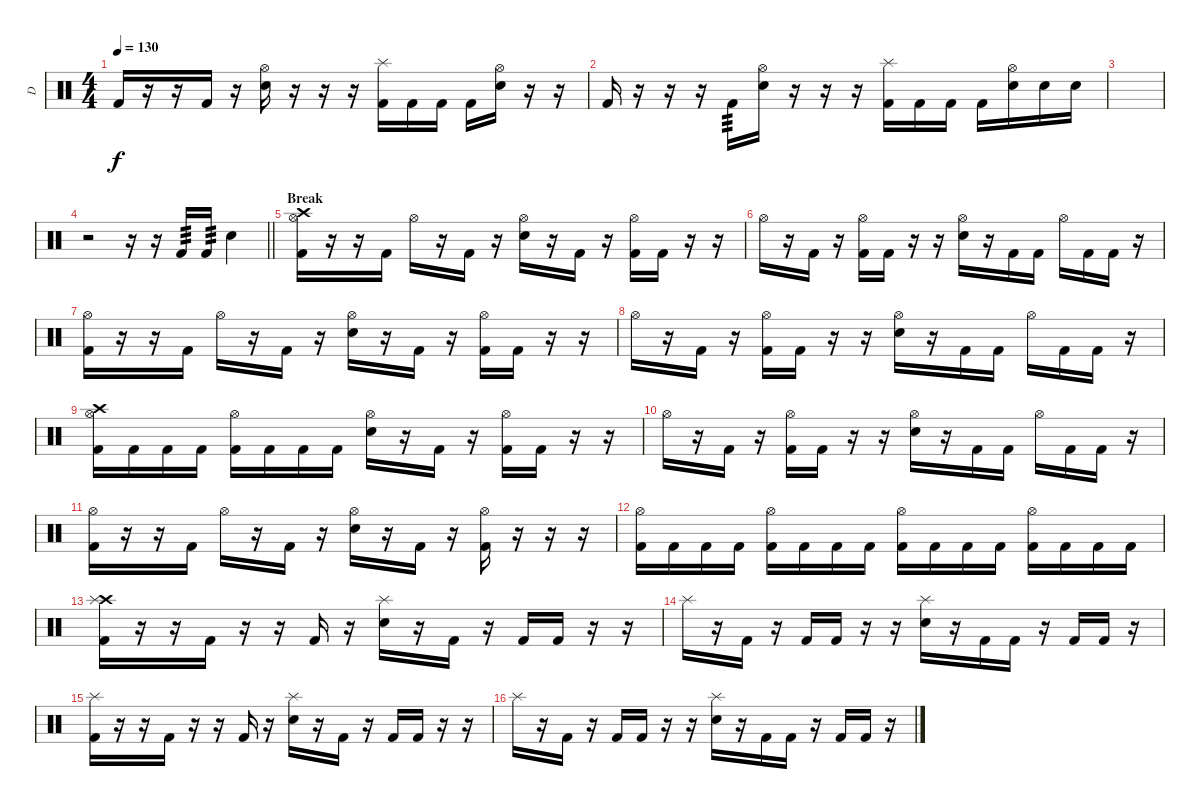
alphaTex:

\track ("D" "D") {instrument percussion}
\staff {score}
\articulation defaults
\ts (4 4)
\tempo 130
\clef neutral
\ks c "Kick (hit) 2".16{dy f}
r.16 r.16 "Kick (hit) 2".16 r.16 ("Electric Snare (hit)" "Hi-Hat (open)").16 r.16 r.16 r.16 ("Kick (hit) 2" "Splash (hit)").16 "Kick (hit) 2".16 "Kick (hit) 2".16 "Kick (hit) 2".16 ("Electric Snare (hit)" "Hi-Hat (open)").16 r.16 r.16 |
"Kick (hit) 2".16 r.16 r.16 r.16 "Kick (hit) 2".16{tp 3} ("Electric Snare (hit)" "Hi-Hat (open)").16 r.16 r.16 r.16 ("Kick (hit) 2" "Splash (hit)").16 "Kick (hit) 2".16 "Kick (hit) 2".16 "Kick (hit) 2".16 ("Electric Snare (hit)" "Hi-Hat (open)").16 "Electric Snare (hit)".16 "Electric Snare (hit)".16 |
|
\barLineRight lightlight
r.2 r.16 r.16 "Kick (hit) 2".16{tp 3} "Kick (hit) 2".16{tp 3} "Electric Snare (hit)".4 |
\section ("" "Break")
("Crash high (hit)" "Kick (hit) 2" "Hi-Hat (open)").16 r.16 r.16 "Kick (hit) 2".16 "Hi-Hat (open)".16 r.16 "Kick (hit) 2".16 r.16 ("Electric Snare (hit)" "Hi-Hat (open)").16 r.16 "Kick (hit) 2".16 r.16 ("Kick (hit) 2" "Hi-Hat (open)").16 "Kick (hit) 2".16 r.16 r.16 |
"Hi-Hat (open)".16 r.16 "Kick (hit) 2".16 r.16 ("Kick (hit) 2" "Hi-Hat (open)").16 "Kick (hit) 2".16 r.16 r.16 ("Electric Snare (hit)" "Hi-Hat (open)").16 r.16 "Kick (hit) 2".16 "Kick (hit) 2".16 "Hi-Hat (open)".16 "Kick (hit) 2".16 "Kick (hit) 2".16 r.16 |
("Kick (hit) 2" "Hi-Hat (open)").16 r.16 r.16 "Kick (hit) 2".16 "Hi-Hat (open)".16 r.16 "Kick (hit) 2".16 r.16 ("Electric Snare (hit)" "Hi-Hat (open)").16 r.16 "Kick (hit) 2".16 r.16 ("Kick (hit) 2" "Hi-Hat (open)").16 "Kick (hit) 2".16 r.16 r.16 |
"Hi-Hat (open)".16 r.16 "Kick (hit) 2".16 r.16 ("Kick (hit) 2" "Hi-Hat (open)").16 "Kick (hit) 2".16 r.16 r.16 ("Electric Snare (hit)" "Hi-Hat (open)").16 r.16 "Kick (hit) 2".16 "Kick (hit) 2".16 "Hi-Hat (open)".16 "Kick (hit) 2".16 "Kick (hit) 2".16 r.16 |
("Crash high (hit)" "Kick (hit) 2" "Hi-Hat (open)").16 "Kick (hit) 2".16 "Kick (hit) 2".16 "Kick (hit) 2".16 ("Kick (hit) 2" "Hi-Hat (open)").16 "Kick (hit) 2".16 "Kick (hit) 2".16 "Kick (hit) 2".16 ("Electric Snare (hit)" "Hi-Hat (open)").16 r.16 "Kick (hit) 2".16 r.16 ("Kick (hit) 2" "Hi-Hat (open)").16 "Kick (hit) 2".16 r.16 r.16 |
"Hi-Hat (open)".16 r.16 "Kick (hit) 2".16 r.16 ("Kick (hit) 2" "Hi-Hat (open)").16 "Kick (hit) 2".16 r.16 r.16 ("Electric Snare (hit)" "Hi-Hat (open)").16 r.16 "Kick (hit) 2".16 "Kick (hit) 2".16 "Hi-Hat (open)".16 "Kick (hit) 2".16 "Kick (hit) 2".16 r.16 |
("Kick (hit) 2" "Hi-Hat (open)").16 r.16 r.16 "Kick (hit) 2".16 "Hi-Hat (open)".16 r.16 "Kick (hit) 2".16 r.16 ("Electric Snare (hit)" "Hi-Hat (open)").16 r.16 "Kick (hit) 2".16 r.16 ("Kick (hit) 2" "Hi-Hat (open)").16 r.16 r.16 r.16 |
("Kick (hit) 2" "Hi-Hat (open)").16 "Kick (hit) 2".16 "Kick (hit) 2".16 "Kick (hit) 2".16 ("Kick (hit) 2" "Hi-Hat (open)").16 "Kick (hit) 2".16 "Kick (hit) 2".16 "Kick (hit) 2".16 ("Kick (hit) 2" "Hi-Hat (open)").16 "Kick (hit) 2".16 "Kick (hit) 2".16 "Kick (hit) 2".16 ("Kick (hit) 2" "Hi-Hat (open)").16 "Kick (hit) 2".16 "Kick (hit) 2".16 "Kick (hit) 2".16 |
("Crash high (hit)" "Kick (hit) 2" "Splash (hit)").16 r.16 r.16 "Kick (hit) 2".16 r.16 r.16 "Kick (hit) 2".16 r.16 ("Electric Snare (hit)" "Splash (hit)").16 r.16 "Kick (hit) 2".16 r.16 "Kick (hit) 2".16 "Kick (hit) 2".16 r.16 r.16 |
"Splash (hit)".16 r.16 "Kick (hit) 2".16 r.16 "Kick (hit) 2".16 "Kick (hit) 2".16 r.16 r.16 ("Electric Snare (hit)" "Splash (hit)").16 r.16 "Kick (hit) 2".16 "Kick (hit) 2".16 r.16 "Kick (hit) 2".16 "Kick (hit) 2".16 r.16 |
("Kick (hit) 2" "Splash (hit)").16 r.16 r.16 "Kick (hit) 2".16 r.16 r.16 "Kick (hit) 2".16 r.16 ("Electric Snare (hit)" "Splash (hit)").16 r.16 "Kick (hit) 2".16 r.16 "Kick (hit) 2".16 "Kick (hit) 2".16 r.16 r.16 |
"Splash (hit)".16 r.16 "Kick (hit) 2".16 r.16 "Kick (hit) 2".16 "Kick (hit) 2".16 r.16 r.16 ("Electric Snare (hit)" "Splash (hit)").16 r.16 "Kick (hit) 2".16 "Kick (hit) 2".16 r.16 "Kick (hit) 2".16 "Kick (hit) 2".16 r.16
